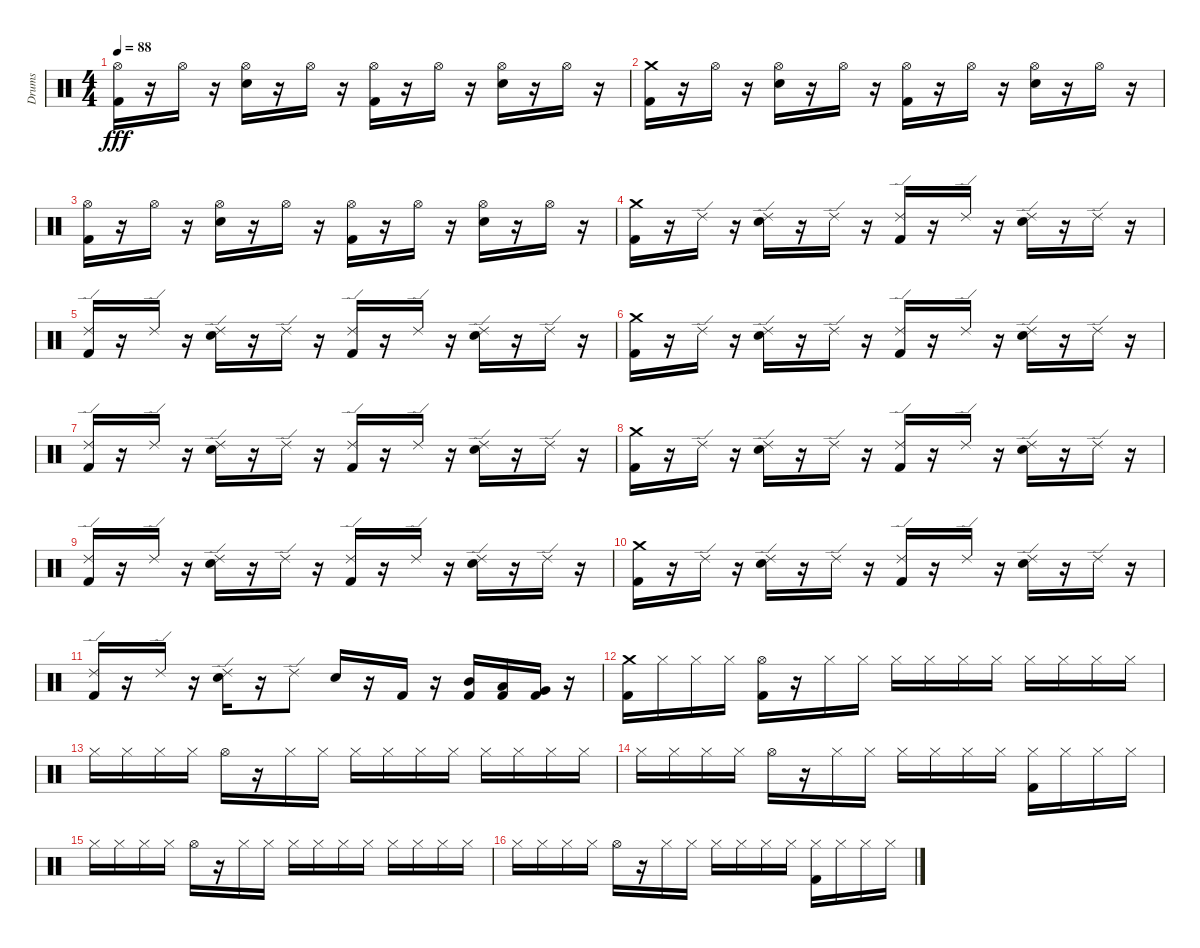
\track ("Drums" "Drums") {instrument percussion}
\staff {score}
\articulation defaults
\ts (4 4)
\tempo 88
\clef neutral
\ks c
("Kick (hit) 2" "Hi-Hat (open)").16{dy fff} r.16 "Hi-Hat (open)".16 r.16 ("Electric Snare (hit)" "Hi-Hat (open)").16 r.16 "Hi-Hat (open)".16 r.16 ("Kick (hit) 2" "Hi-Hat (open)").16 r.16 "Hi-Hat (open)".16 r.16 ("Electric Snare (hit)" "Hi-Hat (open)").16 r.16 "Hi-Hat (open)".16 r.16 |
("Kick (hit) 2" "Crash medium (hit)").16 r.16 "Hi-Hat (open)".16 r.16 ("Electric Snare (hit)" "Hi-Hat (open)").16 r.16 "Hi-Hat (open)".16 r.16 ("Kick (hit) 2" "Hi-Hat (open)").16 r.16 "Hi-Hat (open)".16 r.16 ("Electric Snare (hit)" "Hi-Hat (open)").16 r.16 "Hi-Hat (open)".16 r.16 |
("Kick (hit) 2" "Hi-Hat (open)").16 r.16 "Hi-Hat (open)".16 r.16 ("Electric Snare (hit)" "Hi-Hat (open)").16 r.16 "Hi-Hat (open)".16 r.16 ("Kick (hit) 2" "Hi-Hat (open)").16 r.16 "Hi-Hat (open)".16 r.16 ("Electric Snare (hit)" "Hi-Hat (open)").16 r.16 "Hi-Hat (open)".16 r.16 |
("Kick (hit) 2" "Crash medium (hit)").16 r.16 "Ride (edge) 2".16 r.16 ("Electric Snare (hit)" "Ride (edge) 2").16 r.16 "Ride (edge) 2".16 r.16 ("Kick (hit) 2" "Ride (edge) 2").16 r.16 "Ride (edge) 2".16 r.16 ("Electric Snare (hit)" "Ride (edge) 2").16 r.16 "Ride (edge) 2".16 r.16 |
("Kick (hit) 2" "Ride (edge) 2").16 r.16 "Ride (edge) 2".16 r.16 ("Electric Snare (hit)" "Ride (edge) 2").16 r.16 "Ride (edge) 2".16 r.16 ("Kick (hit) 2" "Ride (edge) 2").16 r.16 "Ride (edge) 2".16 r.16 ("Electric Snare (hit)" "Ride (edge) 2").16 r.16 "Ride (edge) 2".16 r.16 |
("Kick (hit) 2" "Crash medium (hit)").16 r.16 "Ride (edge) 2".16 r.16 ("Electric Snare (hit)" "Ride (edge) 2").16 r.16 "Ride (edge) 2".16 r.16 ("Kick (hit) 2" "Ride (edge) 2").16 r.16 "Ride (edge) 2".16 r.16 ("Electric Snare (hit)" "Ride (edge) 2").16 r.16 "Ride (edge) 2".16 r.16 |
("Kick (hit) 2" "Ride (edge) 2").16 r.16 "Ride (edge) 2".16 r.16 ("Electric Snare (hit)" "Ride (edge) 2").16 r.16 "Ride (edge) 2".16 r.16 ("Kick (hit) 2" "Ride (edge) 2").16 r.16 "Ride (edge) 2".16 r.16 ("Electric Snare (hit)" "Ride (edge) 2").16 r.16 "Ride (edge) 2".16 r.16 |
("Kick (hit) 2" "Crash medium (hit)").16 r.16 "Ride (edge) 2".16 r.16 ("Electric Snare (hit)" "Ride (edge) 2").16 r.16 "Ride (edge) 2".16 r.16 ("Kick (hit) 2" "Ride (edge) 2").16 r.16 "Ride (edge) 2".16 r.16 ("Electric Snare (hit)" "Ride (edge) 2").16 r.16 "Ride (edge) 2".16 r.16 |
("Kick (hit) 2" "Ride (edge) 2").16 r.16 "Ride (edge) 2".16 r.16 ("Electric Snare (hit)" "Ride (edge) 2").16 r.16 "Ride (edge) 2".16 r.16 ("Kick (hit) 2" "Ride (edge) 2").16 r.16 "Ride (edge) 2".16 r.16 ("Electric Snare (hit)" "Ride (edge) 2").16 r.16 "Ride (edge) 2".16 r.16 |
("Kick (hit) 2" "Crash medium (hit)").16 r.16 "Ride (edge) 2".16 r.16 ("Electric Snare (hit)" "Ride (edge) 2").16 r.16 "Ride (edge) 2".16 r.16 ("Kick (hit) 2" "Ride (edge) 2").16 r.16 "Ride (edge) 2".16 r.16 ("Electric Snare (hit)" "Ride (edge) 2").16 r.16 "Ride (edge) 2".16 r.16 |
("Kick (hit) 2" "Ride (edge) 2").16 r.16 "Ride (edge) 2".16 r.16 ("Ride (edge) 2" "Electric Snare (hit)").16 r.16 "Ride (edge) 2".8 "Electric Snare (hit)".16 r.16 "Kick (hit) 2".16 r.16 ("Kick (hit) 2" "Mid Tom (hit)").16 ("Kick (hit) 2" "Low Tom (hit)").16 ("Kick (hit) 2" "Very Low Tom (hit)").16 r.16 |
("Kick (hit) 2" "Crash medium (hit)").16 "Hi-Hat (closed)".16 "Hi-Hat (closed)".16 "Hi-Hat (closed)".16 ("Kick (hit) 2" "Hi-Hat (open)").16 r.16 "Hi-Hat (closed)".16 "Hi-Hat (closed)".16 "Hi-Hat (closed)".16 "Hi-Hat (closed)".16 "Hi-Hat (closed)".16 "Hi-Hat (closed)".16 "Hi-Hat (closed)".16 "Hi-Hat (closed)".16 "Hi-Hat (closed)".16 "Hi-Hat (closed)".16 |
"Hi-Hat (closed)".16 "Hi-Hat (closed)".16 "Hi-Hat (closed)".16 "Hi-Hat (closed)".16 "Hi-Hat (open)".16 r.16 "Hi-Hat (closed)".16 "Hi-Hat (closed)".16 "Hi-Hat (closed)".16 "Hi-Hat (closed)".16 "Hi-Hat (closed)".16 "Hi-Hat (closed)".16 "Hi-Hat (closed)".16 "Hi-Hat (closed)".16 "Hi-Hat (closed)".16 "Hi-Hat (closed)".16 |
"Hi-Hat (closed)".16 "Hi-Hat (closed)".16 "Hi-Hat (closed)".16 "Hi-Hat (closed)".16 "Hi-Hat (open)".16 r.16 "Hi-Hat (closed)".16 "Hi-Hat (closed)".16 "Hi-Hat (closed)".16 "Hi-Hat (closed)".16 "Hi-Hat (closed)".16 "Hi-Hat (closed)".16 ("Kick (hit) 2" "Hi-Hat (closed)").16 "Hi-Hat (closed)".16 "Hi-Hat (closed)".16 "Hi-Hat (closed)".16 |
"Hi-Hat (closed)".16 "Hi-Hat (closed)".16 "Hi-Hat (closed)".16 "Hi-Hat (closed)".16 "Hi-Hat (open)".16 r.16 "Hi-Hat (closed)".16 "Hi-Hat (closed)".16 "Hi-Hat (closed)".16 "Hi-Hat (closed)".16 "Hi-Hat (closed)".16 "Hi-Hat (closed)".16 "Hi-Hat (closed)".16 "Hi-Hat (closed)".16 "Hi-Hat (closed)".16 "Hi-Hat (closed)".16 |
"Hi-Hat (closed)".16 "Hi-Hat (closed)".16 "Hi-Hat (closed)".16 "Hi-Hat (closed)".16 "Hi-Hat (open)".16 r.16 "Hi-Hat (closed)".16 "Hi-Hat (closed)".16 "Hi-Hat (closed)".16 "Hi-Hat (closed)".16 "Hi-Hat (closed)".16 "Hi-Hat (closed)".16 ("Kick (hit) 2" "Hi-Hat (closed)").16 "Hi-Hat (closed)".16 "Hi-Hat (closed)".16 "Hi-Hat (closed)".16
